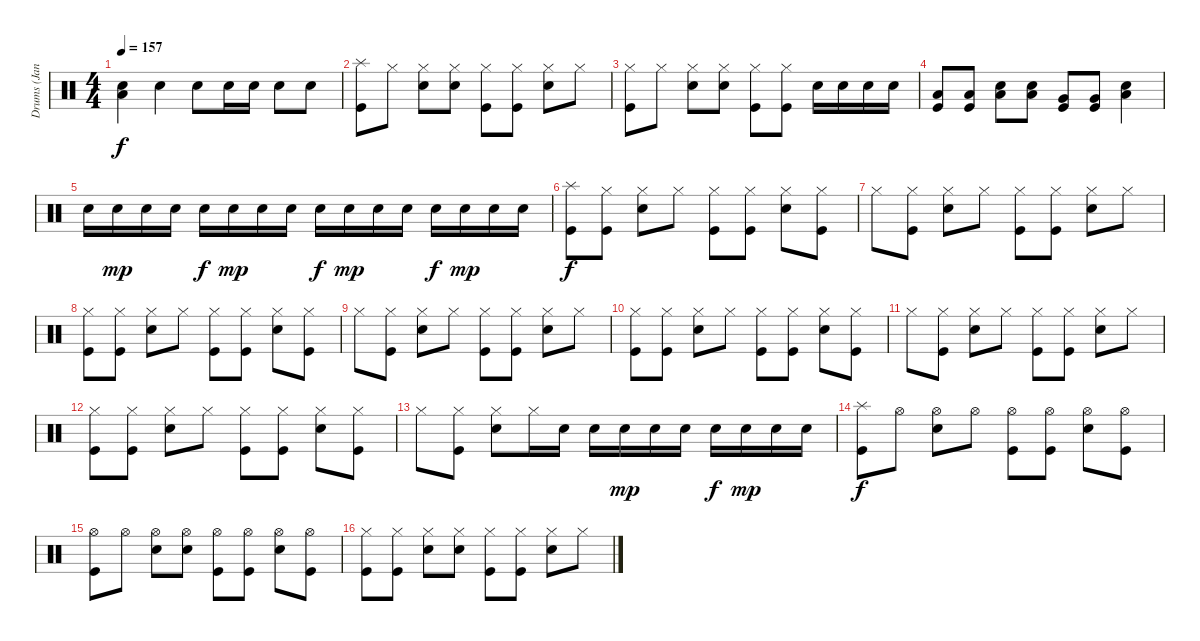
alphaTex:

\track ("Drums (Janet)" "Drums (Jan") {instrument percussion}
\staff {score}
\articulation defaults
\ts (4 4)
\tempo 157
\clef neutral
\ks c
("Low Tom (hit)" "Snare (hit) 2").4{dy f} "Snare (hit) 2".4 "Snare (hit) 2".8 "Snare (hit) 2".16 "Snare (hit) 2".16 "Snare (hit) 2".8 "Snare (hit) 2".8 |
("Splash (hit)" "Kick (hit)").8 "Hi-Hat (closed)".8 ("Hi-Hat (closed)" "Snare (hit) 2").8 ("Hi-Hat (closed)" "Snare (hit) 2").8 ("Hi-Hat (closed)" "Kick (hit)").8 ("Hi-Hat (closed)" "Kick (hit)").8 ("Hi-Hat (closed)" "Snare (hit) 2").8 "Hi-Hat (closed)".8 |
("Hi-Hat (closed)" "Kick (hit)").8 "Hi-Hat (closed)".8 ("Hi-Hat (closed)" "Snare (hit) 2").8 ("Hi-Hat (closed)" "Snare (hit) 2").8 ("Hi-Hat (closed)" "Kick (hit)").8 ("Hi-Hat (closed)" "Kick (hit)").8 "Snare (hit) 2".16 "Snare (hit) 2".16 "Snare (hit) 2".16 "Snare (hit) 2".16 |
("Low Tom (hit)" "Kick (hit)").8 ("Low Tom (hit)" "Kick (hit)").8 ("Low Tom (hit)" "Snare (hit) 2").8 ("Low Tom (hit)" "Snare (hit) 2").8 ("Very Low Tom (hit)" "Kick (hit)").8 ("Very Low Tom (hit)" "Kick (hit)").8 ("Low Tom (hit)" "Snare (hit) 2").4 |
"Snare (hit) 2".16 "Snare (hit) 2".16{dy mp} "Snare (hit) 2".16 "Snare (hit) 2".16 "Snare (hit) 2".16{dy f} "Snare (hit) 2".16{dy mp} "Snare (hit) 2".16 "Snare (hit) 2".16 "Snare (hit) 2".16{dy f} "Snare (hit) 2".16{dy mp} "Snare (hit) 2".16 "Snare (hit) 2".16 "Snare (hit) 2".16{dy f} "Snare (hit) 2".16{dy mp} "Snare (hit) 2".16 "Snare (hit) 2".16 |
("Splash (hit)" "Kick (hit)").8{dy f} ("Hi-Hat (closed)" "Kick (hit)").8 ("Hi-Hat (closed)" "Snare (hit) 2").8 "Hi-Hat (closed)".8 ("Hi-Hat (closed)" "Kick (hit)").8 ("Hi-Hat (closed)" "Kick (hit)").8 ("Hi-Hat (closed)" "Snare (hit) 2").8 ("Hi-Hat (closed)" "Kick (hit)").8 |
"Hi-Hat (closed)".8 ("Hi-Hat (closed)" "Kick (hit)").8 ("Hi-Hat (closed)" "Snare (hit) 2").8 "Hi-Hat (closed)".8 ("Hi-Hat (closed)" "Kick (hit)").8 ("Hi-Hat (closed)" "Kick (hit)").8 ("Hi-Hat (closed)" "Snare (hit) 2").8 "Hi-Hat (closed)".8 |
("Hi-Hat (closed)" "Kick (hit)").8 ("Hi-Hat (closed)" "Kick (hit)").8 ("Hi-Hat (closed)" "Snare (hit) 2").8 "Hi-Hat (closed)".8 ("Hi-Hat (closed)" "Kick (hit)").8 ("Hi-Hat (closed)" "Kick (hit)").8 ("Hi-Hat (closed)" "Snare (hit) 2").8 ("Hi-Hat (closed)" "Kick (hit)").8 |
"Hi-Hat (closed)".8 ("Hi-Hat (closed)" "Kick (hit)").8 ("Hi-Hat (closed)" "Snare (hit) 2").8 "Hi-Hat (closed)".8 ("Hi-Hat (closed)" "Kick (hit)").8 ("Hi-Hat (closed)" "Kick (hit)").8 ("Hi-Hat (closed)" "Snare (hit) 2").8 "Hi-Hat (closed)".8 |
("Hi-Hat (closed)" "Kick (hit)").8 ("Hi-Hat (closed)" "Kick (hit)").8 ("Hi-Hat (closed)" "Snare (hit) 2").8 "Hi-Hat (closed)".8 ("Hi-Hat (closed)" "Kick (hit)").8 ("Hi-Hat (closed)" "Kick (hit)").8 ("Hi-Hat (closed)" "Snare (hit) 2").8 ("Hi-Hat (closed)" "Kick (hit)").8 |
"Hi-Hat (closed)".8 ("Hi-Hat (closed)" "Kick (hit)").8 ("Hi-Hat (closed)" "Snare (hit) 2").8 "Hi-Hat (closed)".8 ("Hi-Hat (closed)" "Kick (hit)").8 ("Hi-Hat (closed)" "Kick (hit)").8 ("Hi-Hat (closed)" "Snare (hit) 2").8 "Hi-Hat (closed)".8 |
("Hi-Hat (closed)" "Kick (hit)").8 ("Hi-Hat (closed)" "Kick (hit)").8 ("Hi-Hat (closed)" "Snare (hit) 2").8 "Hi-Hat (closed)".8 ("Hi-Hat (closed)" "Kick (hit)").8 ("Hi-Hat (closed)" "Kick (hit)").8 ("Hi-Hat (closed)" "Snare (hit) 2").8 ("Hi-Hat (closed)" "Kick (hit)").8 |
"Hi-Hat (closed)".8 ("Hi-Hat (closed)" "Kick (hit)").8 ("Hi-Hat (closed)" "Snare (hit) 2").8 "Hi-Hat (closed)".16 "Snare (hit) 2".16 "Snare (hit) 2".16 "Snare (hit) 2".16{dy mp} "Snare (hit) 2".16 "Snare (hit) 2".16 "Snare (hit) 2".16{dy f} "Snare (hit) 2".16{dy mp} "Snare (hit) 2".16 "Snare (hit) 2".16 |
("Splash (hit)" "Kick (hit)").8{dy f} "Hi-Hat (open)".8 ("Hi-Hat (open)" "Snare (hit) 2").8 "Hi-Hat (open)".8 ("Hi-Hat (open)" "Kick (hit)").8 ("Hi-Hat (open)" "Kick (hit)").8 ("Hi-Hat (open)" "Snare (hit) 2").8 ("Hi-Hat (open)" "Kick (hit)").8 |
("Hi-Hat (open)" "Kick (hit)").8 "Hi-Hat (open)".8 ("Hi-Hat (open)" "Snare (hit) 2").8 ("Hi-Hat (open)" "Snare (hit) 2").8 ("Hi-Hat (open)" "Kick (hit)").8 ("Hi-Hat (open)" "Kick (hit)").8 ("Hi-Hat (open)" "Snare (hit) 2").8 ("Hi-Hat (open)" "Kick (hit)").8 |
("Hi-Hat (closed)" "Kick (hit)").8 ("Hi-Hat (closed)" "Kick (hit)").8 ("Hi-Hat (closed)" "Snare (hit) 2").8 ("Hi-Hat (closed)" "Snare (hit) 2").8 ("Hi-Hat (closed)" "Kick (hit)").8 ("Hi-Hat (closed)" "Kick (hit)").8 ("Hi-Hat (closed)" "Snare (hit) 2").8 "Hi-Hat (closed)".8
